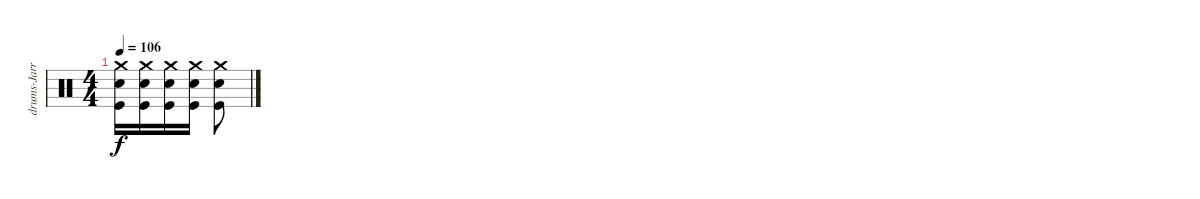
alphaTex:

\track ("drums-Jarrod Montague" "drums-Jarr") {instrument percussion}
\staff {score}
\articulation defaults
\ts (4 4)
\tempo 106
\clef neutral
\ks c
("Crash medium (hit)" "Snare (hit) 2" "Kick (hit)").16{dy f} ("Crash medium (hit)" "Snare (hit) 2" "Kick (hit)").16 ("Crash medium (hit)" "Snare (hit) 2" "Kick (hit)").16 ("Crash medium (hit)" "Snare (hit) 2" "Kick (hit)").16 ("Crash medium (hit)" "Snare (hit) 2" "Kick (hit)").8
